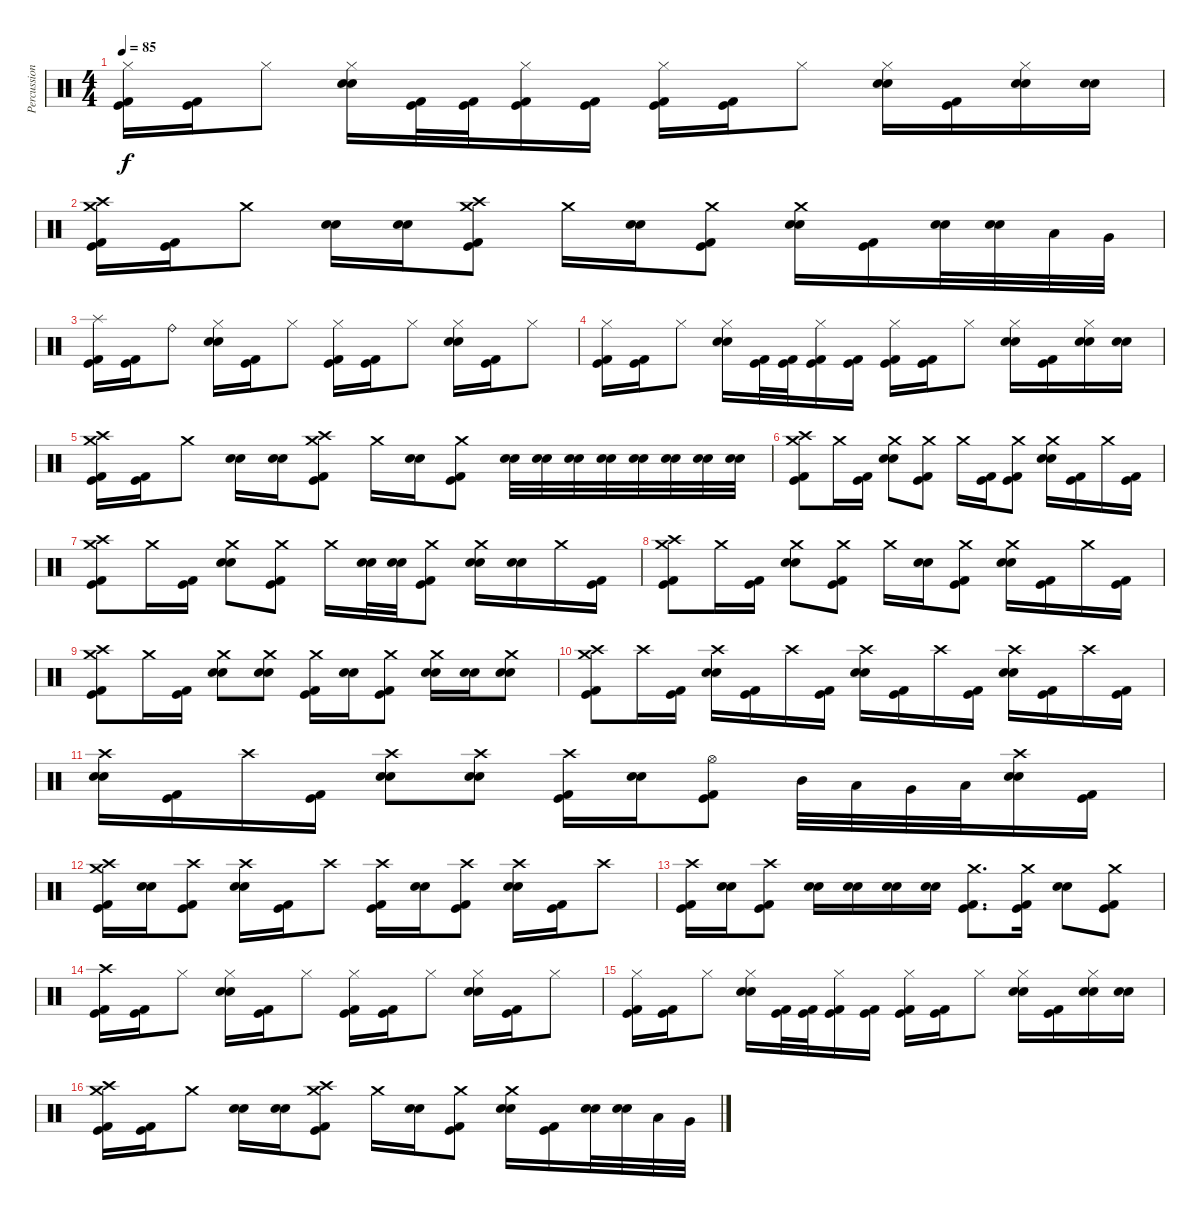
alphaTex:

\track ("Percussion" "Percussion") {instrument percussion}
\staff {score}
\articulation defaults
\ts (4 4)
\tempo 85
\clef neutral
\ks c
("Hi-Hat (closed)" "Kick (hit)" "Kick (hit) 2").16{dy f} ("Kick (hit)" "Kick (hit) 2").16 "Hi-Hat (closed)".8 ("Hi-Hat (closed)" "Electric Snare (hit)" "Snare (hit) 2").16 ("Kick (hit)" "Kick (hit) 2").32 ("Kick (hit)" "Kick (hit) 2").32 ("Hi-Hat (closed)" "Kick (hit)" "Kick (hit) 2").16 ("Kick (hit)" "Kick (hit) 2").16 ("Hi-Hat (closed)" "Kick (hit)" "Kick (hit) 2").16 ("Kick (hit)" "Kick (hit) 2").16 "Hi-Hat (closed)".8 ("Hi-Hat (closed)" "Electric Snare (hit)" "Snare (hit) 2").16 ("Kick (hit)" "Kick (hit) 2").16 ("Hi-Hat (closed)" "Electric Snare (hit)" "Snare (hit) 2").16 ("Electric Snare (hit)" "Snare (hit) 2").16 |
("Crash high (hit)" "Crash medium (hit)" "Kick (hit)" "Kick (hit) 2").16 ("Kick (hit)" "Kick (hit) 2").16 "Crash medium (hit)".8 ("Electric Snare (hit)" "Snare (hit) 2").16 ("Electric Snare (hit)" "Snare (hit) 2").16 ("Crash high (hit)" "Crash medium (hit)" "Kick (hit)" "Kick (hit) 2").8 "Crash medium (hit)".16 ("Electric Snare (hit)" "Snare (hit) 2").16 ("Crash medium (hit)" "Kick (hit)" "Kick (hit) 2").8 ("Crash medium (hit)" "Electric Snare (hit)" "Snare (hit) 2").16 ("Kick (hit)" "Kick (hit) 2").16 ("Electric Snare (hit)" "Snare (hit) 2").32 ("Electric Snare (hit)" "Snare (hit) 2").32 "Low Tom (hit)".32 "Very Low Tom (hit)".32 |
("Splash (hit)" "Kick (hit)" "Kick (hit) 2").16{balance 2} ("Kick (hit)" "Kick (hit) 2").16 "Ride (bell)".8{balance 14} ("Hi-Hat (closed)" "Electric Snare (hit)" "Snare (hit) 2").16{balance 8} ("Kick (hit)" "Kick (hit) 2").16 "Hi-Hat (closed)".8 ("Hi-Hat (closed)" "Kick (hit)" "Kick (hit) 2").16 ("Kick (hit)" "Kick (hit) 2").16 "Hi-Hat (closed)".8 ("Hi-Hat (closed)" "Electric Snare (hit)" "Snare (hit) 2").16 ("Kick (hit)" "Kick (hit) 2").16 "Hi-Hat (closed)".8 |
("Hi-Hat (closed)" "Kick (hit)" "Kick (hit) 2").16 ("Kick (hit)" "Kick (hit) 2").16 "Hi-Hat (closed)".8 ("Hi-Hat (closed)" "Electric Snare (hit)" "Snare (hit) 2").16 ("Kick (hit)" "Kick (hit) 2").32 ("Kick (hit)" "Kick (hit) 2").32 ("Hi-Hat (closed)" "Kick (hit)" "Kick (hit) 2").16 ("Kick (hit)" "Kick (hit) 2").16 ("Hi-Hat (closed)" "Kick (hit)" "Kick (hit) 2").16 ("Kick (hit)" "Kick (hit) 2").16 "Hi-Hat (closed)".8 ("Hi-Hat (closed)" "Electric Snare (hit)" "Snare (hit) 2").16 ("Kick (hit)" "Kick (hit) 2").16 ("Hi-Hat (closed)" "Electric Snare (hit)" "Snare (hit) 2").16 ("Electric Snare (hit)" "Snare (hit) 2").16 |
("Crash high (hit)" "Crash medium (hit)" "Kick (hit)" "Kick (hit) 2").16 ("Kick (hit)" "Kick (hit) 2").16 "Crash medium (hit)".8 ("Electric Snare (hit)" "Snare (hit) 2").16 ("Electric Snare (hit)" "Snare (hit) 2").16 ("Crash high (hit)" "Crash medium (hit)" "Kick (hit)" "Kick (hit) 2").8 "Crash medium (hit)".16 ("Electric Snare (hit)" "Snare (hit) 2").16 ("Crash medium (hit)" "Kick (hit)" "Kick (hit) 2").8 ("Electric Snare (hit)" "Snare (hit) 2").32 ("Electric Snare (hit)" "Snare (hit) 2").32 ("Electric Snare (hit)" "Snare (hit) 2").32 ("Electric Snare (hit)" "Snare (hit) 2").32 ("Electric Snare (hit)" "Snare (hit) 2").32 ("Electric Snare (hit)" "Snare (hit) 2").32 ("Electric Snare (hit)" "Snare (hit) 2").32 ("Electric Snare (hit)" "Snare (hit) 2").32 |
("Crash high (hit)" "Crash medium (hit)" "Kick (hit)" "Kick (hit) 2").8 "Crash medium (hit)".16 ("Kick (hit)" "Kick (hit) 2").16 ("Crash medium (hit)" "Electric Snare (hit)" "Snare (hit) 2").8 ("Crash medium (hit)" "Kick (hit)" "Kick (hit) 2").8 "Crash medium (hit)".16 ("Kick (hit)" "Kick (hit) 2").16 ("Crash medium (hit)" "Kick (hit)" "Kick (hit) 2").8 ("Crash medium (hit)" "Electric Snare (hit)" "Snare (hit) 2").16 ("Kick (hit)" "Kick (hit) 2").16 "Crash medium (hit)".16 ("Kick (hit)" "Kick (hit) 2").16 |
("Crash high (hit)" "Crash medium (hit)" "Kick (hit)" "Kick (hit) 2").8 "Crash medium (hit)".16 ("Kick (hit)" "Kick (hit) 2").16 ("Crash medium (hit)" "Electric Snare (hit)" "Snare (hit) 2").8 ("Crash medium (hit)" "Kick (hit)" "Kick (hit) 2").8 "Crash medium (hit)".16 ("Electric Snare (hit)" "Snare (hit) 2").32 ("Electric Snare (hit)" "Snare (hit) 2").32 ("Crash medium (hit)" "Kick (hit)" "Kick (hit) 2").8 ("Crash medium (hit)" "Electric Snare (hit)" "Snare (hit) 2").16 ("Electric Snare (hit)" "Snare (hit) 2").16 "Crash medium (hit)".16 ("Kick (hit)" "Kick (hit) 2").16 |
("Crash high (hit)" "Crash medium (hit)" "Kick (hit)" "Kick (hit) 2").8 "Crash medium (hit)".16 ("Kick (hit)" "Kick (hit) 2").16 ("Crash medium (hit)" "Electric Snare (hit)" "Snare (hit) 2").8 ("Crash medium (hit)" "Kick (hit)" "Kick (hit) 2").8 "Crash medium (hit)".16 ("Electric Snare (hit)" "Snare (hit) 2").16 ("Crash medium (hit)" "Kick (hit)" "Kick (hit) 2").8 ("Crash medium (hit)" "Electric Snare (hit)" "Snare (hit) 2").16 ("Kick (hit)" "Kick (hit) 2").16 "Crash medium (hit)".16 ("Kick (hit)" "Kick (hit) 2").16 |
("Crash high (hit)" "Crash medium (hit)" "Kick (hit)" "Kick (hit) 2").8 "Crash medium (hit)".16 ("Kick (hit)" "Kick (hit) 2").16 ("Crash medium (hit)" "Electric Snare (hit)" "Snare (hit) 2").8 ("Crash medium (hit)" "Electric Snare (hit)" "Snare (hit) 2").8 ("Crash medium (hit)" "Kick (hit)" "Kick (hit) 2").16 ("Electric Snare (hit)" "Snare (hit) 2").16 ("Crash medium (hit)" "Kick (hit)" "Kick (hit) 2").8 ("Crash medium (hit)" "Electric Snare (hit)" "Snare (hit) 2").16 ("Electric Snare (hit)" "Snare (hit) 2").16 ("Crash medium (hit)" "Electric Snare (hit)" "Snare (hit) 2").8 |
("Crash high (hit)" "Crash medium (hit)" "Kick (hit)" "Kick (hit) 2").8 "Crash high (hit)".16 ("Kick (hit)" "Kick (hit) 2").16 ("Crash high (hit)" "Electric Snare (hit)" "Snare (hit) 2").16 ("Kick (hit)" "Kick (hit) 2").16 "Crash high (hit)".16 ("Kick (hit)" "Kick (hit) 2").16 ("Crash high (hit)" "Electric Snare (hit)" "Snare (hit) 2").16 ("Kick (hit)" "Kick (hit) 2").16 "Crash high (hit)".16 ("Kick (hit)" "Kick (hit) 2").16 ("Crash high (hit)" "Electric Snare (hit)" "Snare (hit) 2").16 ("Kick (hit)" "Kick (hit) 2").16 "Crash high (hit)".16 ("Kick (hit)" "Kick (hit) 2").16 |
("Crash high (hit)" "Electric Snare (hit)" "Snare (hit) 2").16 ("Kick (hit)" "Kick (hit) 2").16 "Crash high (hit)".16 ("Kick (hit)" "Kick (hit) 2").16 ("Crash high (hit)" "Electric Snare (hit)" "Snare (hit) 2").8 ("Crash high (hit)" "Electric Snare (hit)" "Snare (hit) 2").8 ("Crash high (hit)" "Kick (hit)" "Kick (hit) 2").16 ("Electric Snare (hit)" "Snare (hit) 2").16 ("Hi-Hat (open)" "Kick (hit)" "Kick (hit) 2").8 "Mid Tom (hit)".32 "Low Tom (hit)".32 "Very Low Tom (hit)".32 "Low Floor Tom (hit)".32 ("Crash high (hit)" "Electric Snare (hit)" "Snare (hit) 2").16 ("Kick (hit)" "Kick (hit) 2").16 |
("Crash high (hit)" "Crash medium (hit)" "Kick (hit)" "Kick (hit) 2").16 ("Electric Snare (hit)" "Snare (hit) 2").16 ("Crash high (hit)" "Kick (hit)" "Kick (hit) 2").8 ("Crash high (hit)" "Electric Snare (hit)" "Snare (hit) 2").16 ("Kick (hit)" "Kick (hit) 2").16 "Crash high (hit)".8 ("Crash high (hit)" "Kick (hit)" "Kick (hit) 2").16 ("Electric Snare (hit)" "Snare (hit) 2").16 ("Crash high (hit)" "Kick (hit)" "Kick (hit) 2").8 ("Crash high (hit)" "Electric Snare (hit)" "Snare (hit) 2").16 ("Kick (hit)" "Kick (hit) 2").16 "Crash high (hit)".8 |
("Crash high (hit)" "Kick (hit)" "Kick (hit) 2").16 ("Electric Snare (hit)" "Snare (hit) 2").16 ("Crash high (hit)" "Kick (hit)" "Kick (hit) 2").8 ("Electric Snare (hit)" "Snare (hit) 2").16 ("Electric Snare (hit)" "Snare (hit) 2").16 ("Electric Snare (hit)" "Snare (hit) 2").16 ("Electric Snare (hit)" "Snare (hit) 2").16 ("Crash medium (hit)" "Kick (hit)" "Kick (hit) 2").8{d} ("Crash medium (hit)" "Kick (hit)" "Kick (hit) 2").16 ("Electric Snare (hit)" "Snare (hit) 2").8 ("Crash medium (hit)" "Kick (hit)" "Kick (hit) 2").8 |
("Crash high (hit)" "Kick (hit)" "Kick (hit) 2").16 ("Kick (hit)" "Kick (hit) 2").16 "Hi-Hat (closed)".8 ("Hi-Hat (closed)" "Electric Snare (hit)" "Snare (hit) 2").16 ("Kick (hit)" "Kick (hit) 2").16 "Hi-Hat (closed)".8 ("Hi-Hat (closed)" "Kick (hit)" "Kick (hit) 2").16 ("Kick (hit)" "Kick (hit) 2").16 "Hi-Hat (closed)".8 ("Hi-Hat (closed)" "Electric Snare (hit)" "Snare (hit) 2").16 ("Kick (hit)" "Kick (hit) 2").16 "Hi-Hat (closed)".8 |
("Hi-Hat (closed)" "Kick (hit)" "Kick (hit) 2").16 ("Kick (hit)" "Kick (hit) 2").16 "Hi-Hat (closed)".8 ("Hi-Hat (closed)" "Electric Snare (hit)" "Snare (hit) 2").16 ("Kick (hit)" "Kick (hit) 2").32 ("Kick (hit)" "Kick (hit) 2").32 ("Hi-Hat (closed)" "Kick (hit)" "Kick (hit) 2").16 ("Kick (hit)" "Kick (hit) 2").16 ("Hi-Hat (closed)" "Kick (hit)" "Kick (hit) 2").16 ("Kick (hit)" "Kick (hit) 2").16 "Hi-Hat (closed)".8 ("Hi-Hat (closed)" "Electric Snare (hit)" "Snare (hit) 2").16 ("Kick (hit)" "Kick (hit) 2").16 ("Hi-Hat (closed)" "Electric Snare (hit)" "Snare (hit) 2").16 ("Electric Snare (hit)" "Snare (hit) 2").16 |
("Crash high (hit)" "Crash medium (hit)" "Kick (hit)" "Kick (hit) 2").16 ("Kick (hit)" "Kick (hit) 2").16 "Crash medium (hit)".8 ("Electric Snare (hit)" "Snare (hit) 2").16 ("Electric Snare (hit)" "Snare (hit) 2").16 ("Crash high (hit)" "Crash medium (hit)" "Kick (hit)" "Kick (hit) 2").8 "Crash medium (hit)".16 ("Electric Snare (hit)" "Snare (hit) 2").16 ("Crash medium (hit)" "Kick (hit)" "Kick (hit) 2").8 ("Crash medium (hit)" "Electric Snare (hit)" "Snare (hit) 2").16 ("Kick (hit)" "Kick (hit) 2").16 ("Electric Snare (hit)" "Snare (hit) 2").32 ("Electric Snare (hit)" "Snare (hit) 2").32 "Low Tom (hit)".32 "Very Low Tom (hit)".32
